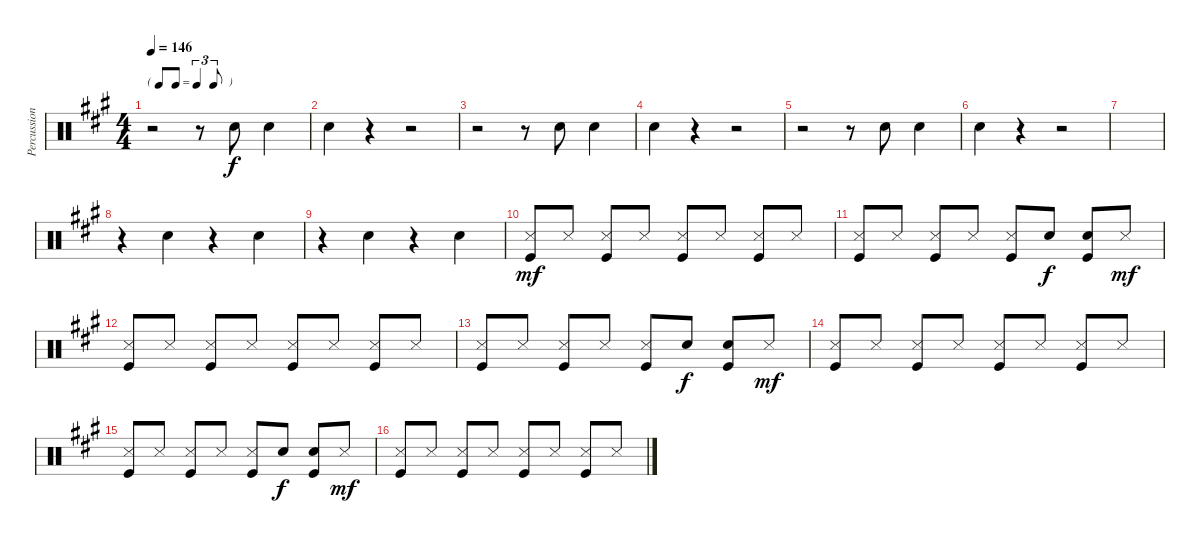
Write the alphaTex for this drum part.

\track ("Percussion" "Percussion") {instrument percussion}
\staff {score}
\articulation defaults
\ts (4 4)
\tf triplet8th
\tempo 146
\clef neutral
\ks a
r.2{dy f} r.8 "Snare (hit) 2".8 "Snare (hit) 2".4 |
"Snare (hit) 2".4 r.4 r.2 |
r.2 r.8 "Snare (hit) 2".8 "Snare (hit) 2".4 |
"Snare (hit) 2".4 r.4 r.2 |
r.2 r.8 "Snare (hit) 2".8 "Snare (hit) 2".4 |
"Snare (hit) 2".4 r.4 r.2 |
|
r.4 "Snare (hit) 2".4 r.4 "Snare (hit) 2".4 |
r.4 "Snare (hit) 2".4 r.4 "Snare (hit) 2".4 |
("Snare (side stick) 3" "Kick (hit)").8{dy mf} "Snare (side stick) 3".8 ("Snare (side stick) 3" "Kick (hit)").8 "Snare (side stick) 3".8 ("Snare (side stick) 3" "Kick (hit)").8 "Snare (side stick) 3".8 ("Snare (side stick) 3" "Kick (hit)").8 "Snare (side stick) 3".8 |
("Snare (side stick) 3" "Kick (hit)").8 "Snare (side stick) 3".8 ("Snare (side stick) 3" "Kick (hit)").8 "Snare (side stick) 3".8 ("Snare (side stick) 3" "Kick (hit)").8 "Snare (hit) 2".8{dy f} ("Snare (hit) 2" "Kick (hit)").8 "Snare (side stick) 3".8{dy mf} |
("Snare (side stick) 3" "Kick (hit)").8 "Snare (side stick) 3".8 ("Snare (side stick) 3" "Kick (hit)").8 "Snare (side stick) 3".8 ("Snare (side stick) 3" "Kick (hit)").8 "Snare (side stick) 3".8 ("Snare (side stick) 3" "Kick (hit)").8 "Snare (side stick) 3".8 |
("Snare (side stick) 3" "Kick (hit)").8 "Snare (side stick) 3".8 ("Snare (side stick) 3" "Kick (hit)").8 "Snare (side stick) 3".8 ("Snare (side stick) 3" "Kick (hit)").8 "Snare (hit) 2".8{dy f} ("Snare (hit) 2" "Kick (hit)").8 "Snare (side stick) 3".8{dy mf} |
("Snare (side stick) 3" "Kick (hit)").8 "Snare (side stick) 3".8 ("Snare (side stick) 3" "Kick (hit)").8 "Snare (side stick) 3".8 ("Snare (side stick) 3" "Kick (hit)").8 "Snare (side stick) 3".8 ("Snare (side stick) 3" "Kick (hit)").8 "Snare (side stick) 3".8 |
("Snare (side stick) 3" "Kick (hit)").8 "Snare (side stick) 3".8 ("Snare (side stick) 3" "Kick (hit)").8 "Snare (side stick) 3".8 ("Snare (side stick) 3" "Kick (hit)").8 "Snare (hit) 2".8{dy f} ("Snare (hit) 2" "Kick (hit)").8 "Snare (side stick) 3".8{dy mf} |
("Snare (side stick) 3" "Kick (hit)").8 "Snare (side stick) 3".8 ("Snare (side stick) 3" "Kick (hit)").8 "Snare (side stick) 3".8 ("Snare (side stick) 3" "Kick (hit)").8 "Snare (side stick) 3".8 ("Snare (side stick) 3" "Kick (hit)").8 "Snare (side stick) 3".8
